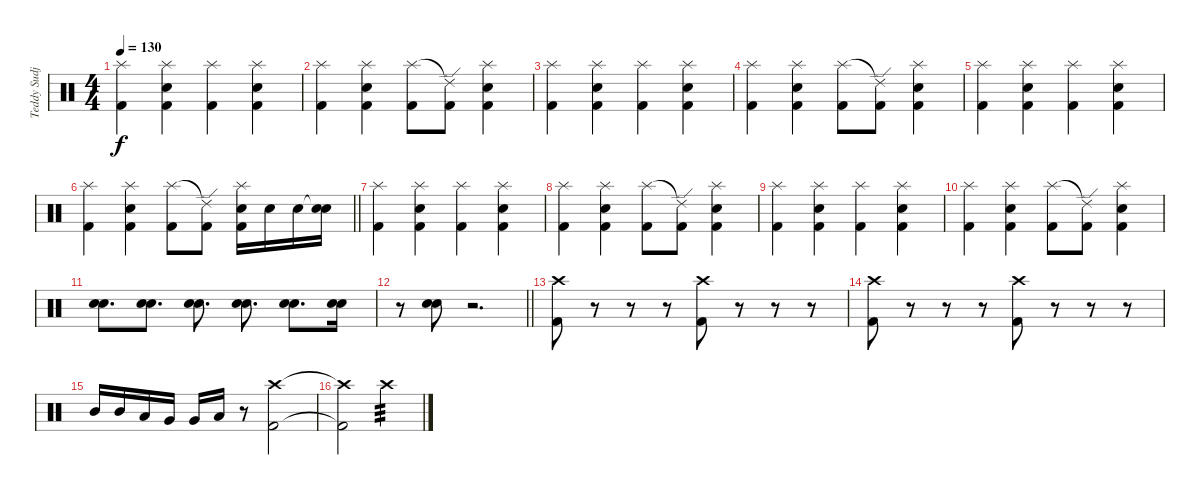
\track ("Teddy Sudjaya (drum)" "Teddy Sudj") {instrument percussion}
\staff {score}
\articulation defaults
\ts (4 4)
\tempo 130
\clef neutral
\ks c
("Splash (hit)" "Kick (hit) 2").4{dy f} ("Splash (hit)" "Snare (hit) 2" "Kick (hit) 2").4 ("Splash (hit)" "Kick (hit) 2").4 ("Splash (hit)" "Snare (hit) 2" "Kick (hit) 2").4 |
("Splash (hit)" "Kick (hit) 2").4 ("Splash (hit)" "Snare (hit) 2" "Kick (hit) 2").4 ("Splash (hit)" "Kick (hit) 2").8 ("Ride (edge) 2"{t} "Kick (hit) 2").8 ("Splash (hit)" "Snare (hit) 2" "Kick (hit) 2").4 |
("Splash (hit)" "Kick (hit) 2").4 ("Splash (hit)" "Snare (hit) 2" "Kick (hit) 2").4 ("Splash (hit)" "Kick (hit) 2").4 ("Splash (hit)" "Snare (hit) 2" "Kick (hit) 2").4 |
("Splash (hit)" "Kick (hit) 2").4 ("Splash (hit)" "Snare (hit) 2" "Kick (hit) 2").4 ("Splash (hit)" "Kick (hit) 2").8 ("Ride (edge) 2"{t} "Kick (hit) 2").8 ("Splash (hit)" "Snare (hit) 2" "Kick (hit) 2").4 |
("Splash (hit)" "Kick (hit) 2").4 ("Splash (hit)" "Snare (hit) 2" "Kick (hit) 2").4 ("Splash (hit)" "Kick (hit) 2").4 ("Splash (hit)" "Snare (hit) 2" "Kick (hit) 2").4 |
\barLineRight lightlight
("Splash (hit)" "Kick (hit) 2").4 ("Splash (hit)" "Snare (hit) 2" "Kick (hit) 2").4 ("Splash (hit)" "Kick (hit) 2").8 ("Ride (edge) 2"{t} "Kick (hit) 2").8 ("Splash (hit)" "Snare (hit) 2" "Kick (hit) 2").16 "Snare (hit) 2".16 "Snare (hit) 2".16 ("Snare (hit)"{t} "Snare (hit) 2").16 |
("Splash (hit)" "Kick (hit) 2").4 ("Splash (hit)" "Snare (hit) 2" "Kick (hit) 2").4 ("Splash (hit)" "Kick (hit) 2").4 ("Splash (hit)" "Snare (hit) 2" "Kick (hit) 2").4 |
("Splash (hit)" "Kick (hit) 2").4 ("Splash (hit)" "Snare (hit) 2" "Kick (hit) 2").4 ("Splash (hit)" "Kick (hit) 2").8 ("Ride (edge) 2"{t} "Kick (hit) 2").8 ("Splash (hit)" "Snare (hit) 2" "Kick (hit) 2").4 |
("Splash (hit)" "Kick (hit) 2").4 ("Splash (hit)" "Snare (hit) 2" "Kick (hit) 2").4 ("Splash (hit)" "Kick (hit) 2").4 ("Splash (hit)" "Snare (hit) 2" "Kick (hit) 2").4 |
("Splash (hit)" "Kick (hit) 2").4 ("Splash (hit)" "Snare (hit) 2" "Kick (hit) 2").4 ("Splash (hit)" "Kick (hit) 2").8 ("Ride (edge) 2"{t} "Kick (hit) 2").8 ("Splash (hit)" "Snare (hit) 2" "Kick (hit) 2").4 |
("Electric Snare (hit)" "Snare (hit) 2").8{d} ("Electric Snare (hit)" "Snare (hit) 2").8{d} ("Electric Snare (hit)" "Snare (hit) 2").8{d} ("Electric Snare (hit)" "Snare (hit) 2").8{d} ("Electric Snare (hit)" "Snare (hit) 2").8{d} ("Electric Snare (hit)" "Snare (hit) 2").16 |
\barLineRight lightlight
r.8 ("Electric Snare (hit)" "Snare (hit) 2").8 r.2{d} |
("Crash high (hit)" "Kick (hit) 2").8 r.8 r.8 r.8 ("Crash high (hit)" "Kick (hit) 2").8 r.8 r.8 r.8 |
("Crash high (hit)" "Kick (hit) 2").8 r.8 r.8 r.8 ("Crash high (hit)" "Kick (hit) 2").8 r.8 r.8 r.8 |
"Mid Tom (hit)".16 "Mid Tom (hit)".16 "Low Tom (hit)".16 "Very Low Tom (hit)".16 "Very Low Tom (hit)".16 "Low Floor Tom (hit)".16 r.8 ("Crash high (hit)" "Kick (hit) 2").2 |
("Crash high (hit)"{t} "Kick (hit) 2"{t}).2 "Crash high (hit)".4{tp 3}
